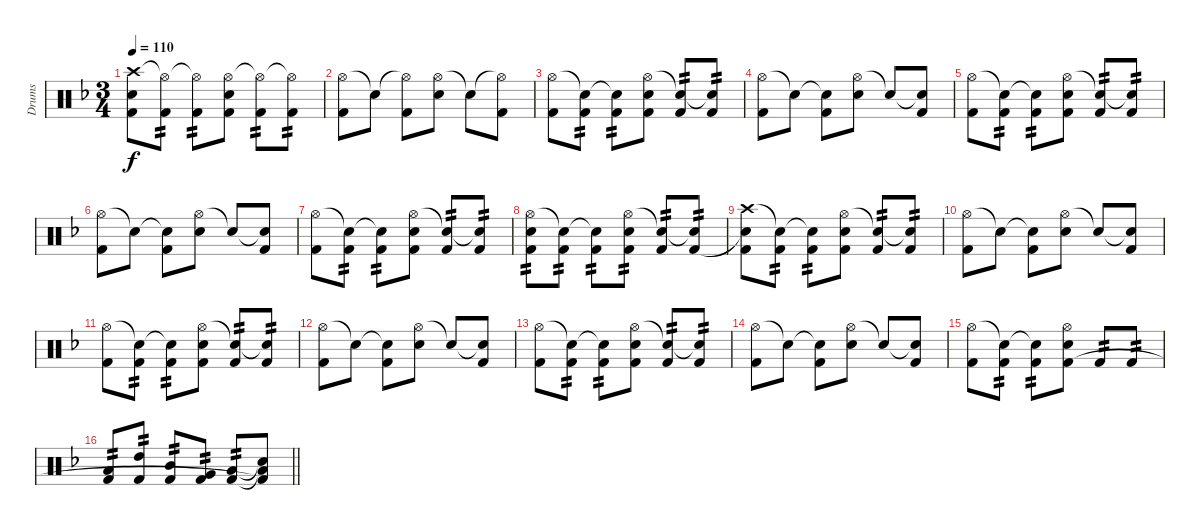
\track ("Drums" "Drums") {instrument percussion}
\staff {score}
\articulation defaults
\ts (3 4)
\tempo 110
\clef neutral
\ks dminor
("Crash high (hit)" "Snare (hit)"{t} "Kick (hit) 2").8{dy f} ("Hi-Hat (open)"{t} "Kick (hit) 2").8{tp 2} ("Hi-Hat (open)"{t} "Kick (hit) 2").8{tp 2} ("Hi-Hat (open)" "Snare (hit) 2" "Kick (hit) 2").8 ("Hi-Hat (open)"{t} "Kick (hit) 2").8{tp 2} ("Hi-Hat (open)"{t} "Kick (hit) 2").8{tp 2} |
("Hi-Hat (open)" "Kick (hit) 2").8 "Snare (hit)"{t}.8 ("Hi-Hat (open)"{t} "Kick (hit) 2").8 ("Hi-Hat (open)" "Snare (hit) 2").8 "Snare (hit)"{t}.8 ("Hi-Hat (open)"{t} "Kick (hit) 2").8 |
("Hi-Hat (open)" "Kick (hit) 2").8 ("Snare (hit)"{t} "Kick (hit) 2").8{tp 2} ("Snare (hit)"{t} "Kick (hit) 2").8{tp 2} ("Hi-Hat (open)" "Snare (hit) 2" "Kick (hit) 2").8 ("Snare (hit)"{t} "Kick (hit) 2").8{tp 2} ("Snare (hit)"{t} "Kick (hit) 2").8{tp 2} |
("Hi-Hat (open)" "Kick (hit) 2").8 "Snare (hit)"{t}.8 ("Snare (hit)"{t} "Kick (hit) 2").8 ("Hi-Hat (open)" "Snare (hit) 2").8 "Snare (hit)"{t}.8 ("Snare (hit)"{t} "Kick (hit) 2").8 |
("Hi-Hat (open)" "Kick (hit) 2").8 ("Snare (hit)"{t} "Kick (hit) 2").8{tp 2} ("Snare (hit)"{t} "Kick (hit) 2").8{tp 2} ("Hi-Hat (open)" "Snare (hit) 2" "Kick (hit) 2").8 ("Snare (hit)"{t} "Kick (hit) 2").8{tp 2} ("Snare (hit)"{t} "Kick (hit) 2").8{tp 2} |
("Hi-Hat (open)" "Kick (hit) 2").8 "Snare (hit)"{t}.8 ("Snare (hit)"{t} "Kick (hit) 2").8 ("Hi-Hat (open)" "Snare (hit) 2").8 "Snare (hit)"{t}.8 ("Snare (hit)"{t} "Kick (hit) 2").8 |
("Hi-Hat (open)" "Kick (hit) 2").8 ("Snare (hit)"{t} "Kick (hit) 2").8{tp 2} ("Snare (hit)"{t} "Kick (hit) 2").8{tp 2} ("Hi-Hat (open)" "Snare (hit) 2" "Kick (hit) 2").8 ("Snare (hit)"{t} "Kick (hit) 2").8{tp 2} ("Snare (hit)"{t} "Kick (hit) 2").8{tp 2} |
("Hi-Hat (open)" "Snare (hit) 2" "Kick (hit) 2").8{tp 2} ("Snare (hit)"{t} "Kick (hit) 2").8{tp 2} ("Snare (hit)"{t} "Kick (hit) 2").8{tp 2} ("Hi-Hat (open)" "Snare (hit) 2" "Kick (hit) 2").8{tp 2} ("Snare (hit)"{t} "Kick (hit) 2").8{tp 2} ("Snare (hit)"{t} "Kick (hit) 2").8{tp 2} |
("Crash high (hit)" "Snare (hit)"{t} "Kick (hit) 2").8 ("Snare (hit)"{t} "Kick (hit) 2").8{tp 2} ("Snare (hit)"{t} "Kick (hit) 2").8{tp 2} ("Hi-Hat (open)" "Snare (hit) 2" "Kick (hit) 2").8 ("Snare (hit)"{t} "Kick (hit) 2").8{tp 2} ("Snare (hit)"{t} "Kick (hit) 2").8{tp 2} |
("Hi-Hat (open)" "Kick (hit) 2").8 "Snare (hit)"{t}.8 ("Snare (hit)"{t} "Kick (hit) 2").8 ("Hi-Hat (open)" "Snare (hit) 2").8 "Snare (hit)"{t}.8 ("Snare (hit)"{t} "Kick (hit) 2").8 |
("Hi-Hat (open)" "Kick (hit) 2").8 ("Snare (hit)"{t} "Kick (hit) 2").8{tp 2} ("Snare (hit)"{t} "Kick (hit) 2").8{tp 2} ("Hi-Hat (open)" "Snare (hit) 2" "Kick (hit) 2").8 ("Snare (hit)"{t} "Kick (hit) 2").8{tp 2} ("Snare (hit)"{t} "Kick (hit) 2").8{tp 2} |
("Hi-Hat (open)" "Kick (hit) 2").8 "Snare (hit)"{t}.8 ("Snare (hit)"{t} "Kick (hit) 2").8 ("Hi-Hat (open)" "Snare (hit) 2").8 "Snare (hit)"{t}.8 ("Snare (hit)"{t} "Kick (hit) 2").8 |
("Hi-Hat (open)" "Kick (hit) 2").8 ("Snare (hit)"{t} "Kick (hit) 2").8{tp 2} ("Snare (hit)"{t} "Kick (hit) 2").8{tp 2} ("Hi-Hat (open)" "Snare (hit) 2" "Kick (hit) 2").8 ("Snare (hit)"{t} "Kick (hit) 2").8{tp 2} ("Snare (hit)"{t} "Kick (hit) 2").8{tp 2} |
("Hi-Hat (open)" "Kick (hit) 2").8 "Snare (hit)"{t}.8 ("Snare (hit)"{t} "Kick (hit) 2").8 ("Hi-Hat (open)" "Snare (hit) 2").8 "Snare (hit)"{t}.8 ("Snare (hit)"{t} "Kick (hit) 2").8 |
("Hi-Hat (open)" "Kick (hit) 2").8 ("Snare (hit)"{t} "Kick (hit) 2").8{tp 2} ("Snare (hit)"{t} "Kick (hit) 2").8{tp 2} ("Hi-Hat (open)" "Snare (hit) 2" "Kick (hit) 2").8 "Kick (hit) 2".8{tp 2} "Kick (hit) 2".8{tp 2} |
\barLineRight lightlight
("Low Tom (hit)" "Kick (hit) 2").8{tp 2} ("High Tom (hit)" "Kick (hit) 2").8{tp 2} ("Mid Tom (hit)" "Kick (hit) 2").8{tp 2} ("Very Low Tom (hit)" "Kick (hit) 2").8{tp 2} ("Low Tom (hit)" "Kick (hit) 2").8{tp 2} ("Snare (hit)"{t} "Low Tom (hit)"{t} "Kick (hit) 2"{t}).8
